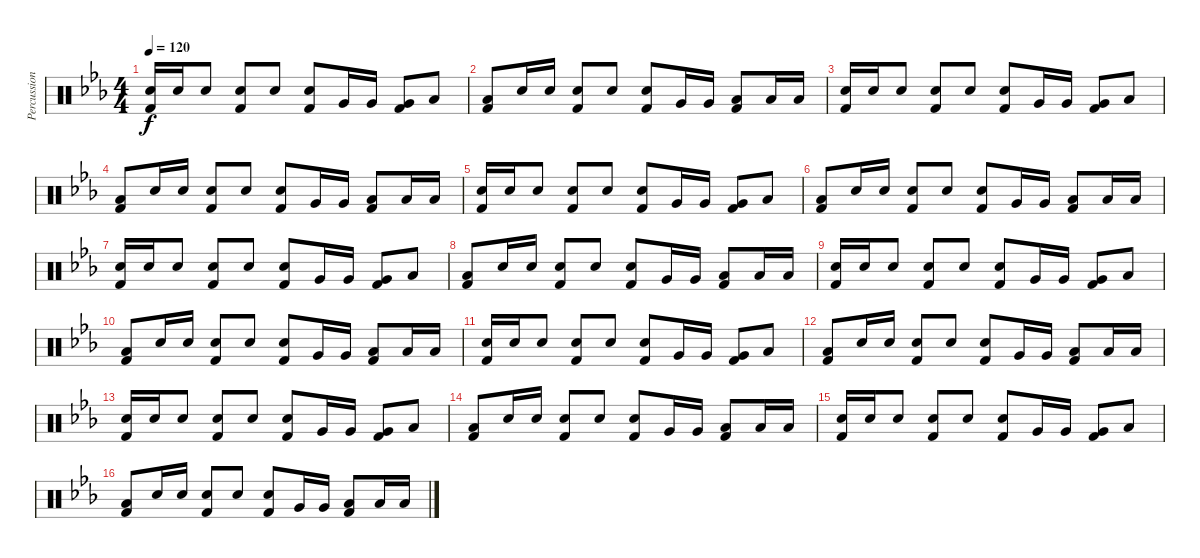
\track ("Percussion" "Percussion") {instrument percussion}
\staff {score}
\articulation defaults
\ts (4 4)
\tempo 120
\clef neutral
\ks eb
("Electric Snare (hit)" "Kick (hit) 2").16{dy f} "Electric Snare (hit)".16 "Electric Snare (hit)".8 ("Electric Snare (hit)" "Kick (hit) 2").8 "Electric Snare (hit)".8 ("Electric Snare (hit)" "Kick (hit) 2").8 "Very Low Tom (hit)".16 "Very Low Tom (hit)".16 ("Very Low Tom (hit)" "Kick (hit) 2").8 "Low Floor Tom (hit)".8 |
("Low Floor Tom (hit)" "Kick (hit) 2").8 "Electric Snare (hit)".16 "Electric Snare (hit)".16 ("Electric Snare (hit)" "Kick (hit) 2").8 "Electric Snare (hit)".8 ("Electric Snare (hit)" "Kick (hit) 2").8 "Very Low Tom (hit)".16 "Very Low Tom (hit)".16 ("Low Floor Tom (hit)" "Kick (hit) 2").8 "Low Floor Tom (hit)".16 "Low Floor Tom (hit)".16 |
("Electric Snare (hit)" "Kick (hit) 2").16 "Electric Snare (hit)".16 "Electric Snare (hit)".8 ("Electric Snare (hit)" "Kick (hit) 2").8 "Electric Snare (hit)".8 ("Electric Snare (hit)" "Kick (hit) 2").8 "Very Low Tom (hit)".16 "Very Low Tom (hit)".16 ("Very Low Tom (hit)" "Kick (hit) 2").8 "Low Floor Tom (hit)".8 |
("Low Floor Tom (hit)" "Kick (hit) 2").8 "Electric Snare (hit)".16 "Electric Snare (hit)".16 ("Electric Snare (hit)" "Kick (hit) 2").8 "Electric Snare (hit)".8 ("Electric Snare (hit)" "Kick (hit) 2").8 "Very Low Tom (hit)".16 "Very Low Tom (hit)".16 ("Low Floor Tom (hit)" "Kick (hit) 2").8 "Low Floor Tom (hit)".16 "Low Floor Tom (hit)".16 |
("Electric Snare (hit)" "Kick (hit) 2").16 "Electric Snare (hit)".16 "Electric Snare (hit)".8 ("Electric Snare (hit)" "Kick (hit) 2").8 "Electric Snare (hit)".8 ("Electric Snare (hit)" "Kick (hit) 2").8 "Very Low Tom (hit)".16 "Very Low Tom (hit)".16 ("Very Low Tom (hit)" "Kick (hit) 2").8 "Low Floor Tom (hit)".8 |
("Low Floor Tom (hit)" "Kick (hit) 2").8 "Electric Snare (hit)".16 "Electric Snare (hit)".16 ("Electric Snare (hit)" "Kick (hit) 2").8 "Electric Snare (hit)".8 ("Electric Snare (hit)" "Kick (hit) 2").8 "Very Low Tom (hit)".16 "Very Low Tom (hit)".16 ("Low Floor Tom (hit)" "Kick (hit) 2").8 "Low Floor Tom (hit)".16 "Low Floor Tom (hit)".16 |
("Electric Snare (hit)" "Kick (hit) 2").16 "Electric Snare (hit)".16 "Electric Snare (hit)".8 ("Electric Snare (hit)" "Kick (hit) 2").8 "Electric Snare (hit)".8 ("Electric Snare (hit)" "Kick (hit) 2").8 "Very Low Tom (hit)".16 "Very Low Tom (hit)".16 ("Very Low Tom (hit)" "Kick (hit) 2").8 "Low Floor Tom (hit)".8 |
("Low Floor Tom (hit)" "Kick (hit) 2").8 "Electric Snare (hit)".16 "Electric Snare (hit)".16 ("Electric Snare (hit)" "Kick (hit) 2").8 "Electric Snare (hit)".8 ("Electric Snare (hit)" "Kick (hit) 2").8 "Very Low Tom (hit)".16 "Very Low Tom (hit)".16 ("Low Floor Tom (hit)" "Kick (hit) 2").8 "Low Floor Tom (hit)".16 "Low Floor Tom (hit)".16 |
("Electric Snare (hit)" "Kick (hit) 2").16 "Electric Snare (hit)".16 "Electric Snare (hit)".8 ("Electric Snare (hit)" "Kick (hit) 2").8 "Electric Snare (hit)".8 ("Electric Snare (hit)" "Kick (hit) 2").8 "Very Low Tom (hit)".16 "Very Low Tom (hit)".16 ("Very Low Tom (hit)" "Kick (hit) 2").8 "Low Floor Tom (hit)".8 |
("Low Floor Tom (hit)" "Kick (hit) 2").8 "Electric Snare (hit)".16 "Electric Snare (hit)".16 ("Electric Snare (hit)" "Kick (hit) 2").8 "Electric Snare (hit)".8 ("Electric Snare (hit)" "Kick (hit) 2").8 "Very Low Tom (hit)".16 "Very Low Tom (hit)".16 ("Low Floor Tom (hit)" "Kick (hit) 2").8 "Low Floor Tom (hit)".16 "Low Floor Tom (hit)".16 |
("Electric Snare (hit)" "Kick (hit) 2").16 "Electric Snare (hit)".16 "Electric Snare (hit)".8 ("Electric Snare (hit)" "Kick (hit) 2").8 "Electric Snare (hit)".8 ("Electric Snare (hit)" "Kick (hit) 2").8 "Very Low Tom (hit)".16 "Very Low Tom (hit)".16 ("Very Low Tom (hit)" "Kick (hit) 2").8 "Low Floor Tom (hit)".8 |
("Low Floor Tom (hit)" "Kick (hit) 2").8 "Electric Snare (hit)".16 "Electric Snare (hit)".16 ("Electric Snare (hit)" "Kick (hit) 2").8 "Electric Snare (hit)".8 ("Electric Snare (hit)" "Kick (hit) 2").8 "Very Low Tom (hit)".16 "Very Low Tom (hit)".16 ("Low Floor Tom (hit)" "Kick (hit) 2").8 "Low Floor Tom (hit)".16 "Low Floor Tom (hit)".16 |
("Electric Snare (hit)" "Kick (hit) 2").16 "Electric Snare (hit)".16 "Electric Snare (hit)".8 ("Electric Snare (hit)" "Kick (hit) 2").8 "Electric Snare (hit)".8 ("Electric Snare (hit)" "Kick (hit) 2").8 "Very Low Tom (hit)".16 "Very Low Tom (hit)".16 ("Very Low Tom (hit)" "Kick (hit) 2").8 "Low Floor Tom (hit)".8 |
("Low Floor Tom (hit)" "Kick (hit) 2").8 "Electric Snare (hit)".16 "Electric Snare (hit)".16 ("Electric Snare (hit)" "Kick (hit) 2").8 "Electric Snare (hit)".8 ("Electric Snare (hit)" "Kick (hit) 2").8 "Very Low Tom (hit)".16 "Very Low Tom (hit)".16 ("Low Floor Tom (hit)" "Kick (hit) 2").8 "Low Floor Tom (hit)".16 "Low Floor Tom (hit)".16 |
("Electric Snare (hit)" "Kick (hit) 2").16 "Electric Snare (hit)".16 "Electric Snare (hit)".8 ("Electric Snare (hit)" "Kick (hit) 2").8 "Electric Snare (hit)".8 ("Electric Snare (hit)" "Kick (hit) 2").8 "Very Low Tom (hit)".16 "Very Low Tom (hit)".16 ("Very Low Tom (hit)" "Kick (hit) 2").8 "Low Floor Tom (hit)".8 |
("Low Floor Tom (hit)" "Kick (hit) 2").8 "Electric Snare (hit)".16 "Electric Snare (hit)".16 ("Electric Snare (hit)" "Kick (hit) 2").8 "Electric Snare (hit)".8 ("Electric Snare (hit)" "Kick (hit) 2").8 "Very Low Tom (hit)".16 "Very Low Tom (hit)".16 ("Low Floor Tom (hit)" "Kick (hit) 2").8 "Low Floor Tom (hit)".16 "Low Floor Tom (hit)".16
